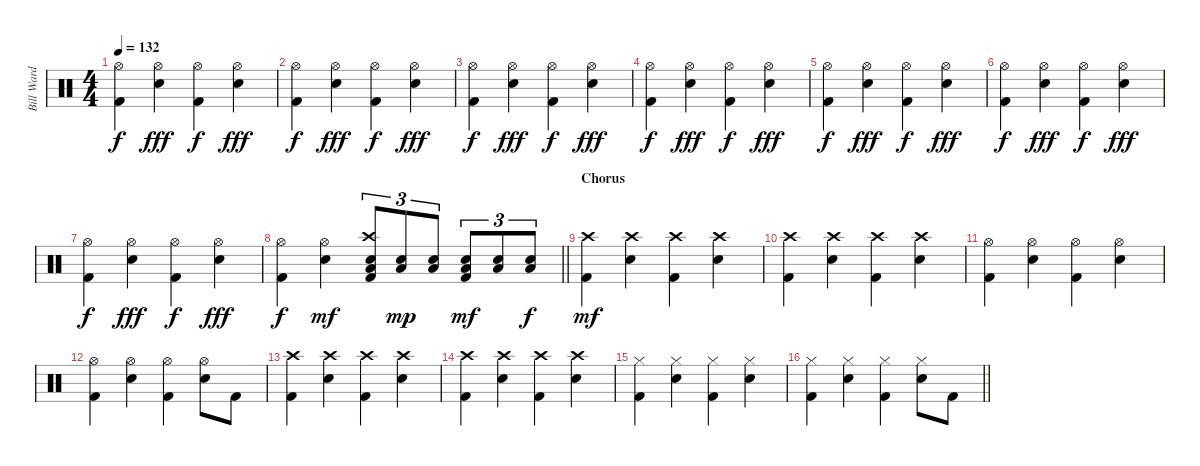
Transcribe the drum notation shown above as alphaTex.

\track ("Bill Ward" "Bill Ward") {instrument percussion}
\staff {score}
\articulation defaults
\ts (4 4)
\tempo 132
\clef neutral
\ks c
("Hi-Hat (open)" "Kick (hit) 2").4{dy f} ("Hi-Hat (open)" "Snare (hit) 2").4{dy fff} ("Hi-Hat (open)" "Kick (hit) 2").4{dy f} ("Hi-Hat (open)" "Snare (hit) 2").4{dy fff} |
("Hi-Hat (open)" "Kick (hit) 2").4{dy f} ("Hi-Hat (open)" "Snare (hit) 2").4{dy fff} ("Hi-Hat (open)" "Kick (hit) 2").4{dy f} ("Hi-Hat (open)" "Snare (hit) 2").4{dy fff} |
("Hi-Hat (open)" "Kick (hit) 2").4{dy f} ("Hi-Hat (open)" "Snare (hit) 2").4{dy fff} ("Hi-Hat (open)" "Kick (hit) 2").4{dy f} ("Hi-Hat (open)" "Snare (hit) 2").4{dy fff} |
("Hi-Hat (open)" "Kick (hit) 2").4{dy f} ("Hi-Hat (open)" "Snare (hit) 2").4{dy fff} ("Hi-Hat (open)" "Kick (hit) 2").4{dy f} ("Hi-Hat (open)" "Snare (hit) 2").4{dy fff} |
("Hi-Hat (open)" "Kick (hit) 2").4{dy f} ("Hi-Hat (open)" "Snare (hit) 2").4{dy fff} ("Hi-Hat (open)" "Kick (hit) 2").4{dy f} ("Hi-Hat (open)" "Snare (hit) 2").4{dy fff} |
("Hi-Hat (open)" "Kick (hit) 2").4{dy f} ("Hi-Hat (open)" "Snare (hit) 2").4{dy fff} ("Hi-Hat (open)" "Kick (hit) 2").4{dy f} ("Hi-Hat (open)" "Snare (hit) 2").4{dy fff} |
("Hi-Hat (open)" "Kick (hit) 2").4{dy f} ("Hi-Hat (open)" "Snare (hit) 2").4{dy fff} ("Hi-Hat (open)" "Kick (hit) 2").4{dy f} ("Hi-Hat (open)" "Snare (hit) 2").4{dy fff} |
\barLineRight lightlight
("Hi-Hat (open)" "Kick (hit) 2").4{dy f} ("Hi-Hat (open)" "Snare (hit) 2").4{dy mf} ("Crash high (hit)" "Snare (hit) 2" "Low Tom (hit)" "Kick (hit) 2").8{tu (3 2)} ("Snare (hit) 2" "Low Tom (hit)").8{tu (3 2) dy mp} ("Snare (hit) 2" "Low Tom (hit)").8{tu (3 2)} ("Snare (hit) 2" "Low Tom (hit)" "Kick (hit) 2").8{tu (3 2) dy mf} ("Snare (hit) 2" "Low Tom (hit)").8{tu (3 2)} ("Snare (hit) 2" "Low Tom (hit)").8{tu (3 2) dy f} |
\section ("" "Chorus")
("Crash high (hit)" "Kick (hit) 2").4{dy mf} ("Crash high (hit)" "Snare (hit) 2").4 ("Crash high (hit)" "Kick (hit) 2").4 ("Crash high (hit)" "Snare (hit) 2").4 |
("Crash high (hit)" "Kick (hit) 2").4 ("Crash high (hit)" "Snare (hit) 2").4 ("Crash high (hit)" "Kick (hit) 2").4 ("Crash high (hit)" "Snare (hit) 2").4 |
("Hi-Hat (open)" "Kick (hit) 2").4 ("Hi-Hat (open)" "Snare (hit) 2").4 ("Hi-Hat (open)" "Kick (hit) 2").4 ("Hi-Hat (open)" "Snare (hit) 2").4 |
("Hi-Hat (open)" "Kick (hit) 2").4 ("Hi-Hat (open)" "Snare (hit) 2").4 ("Hi-Hat (open)" "Kick (hit) 2").4 ("Hi-Hat (open)" "Snare (hit) 2").8 "Kick (hit) 2".8 |
("Crash high (hit)" "Kick (hit) 2").4 ("Crash high (hit)" "Snare (hit) 2").4 ("Crash high (hit)" "Kick (hit) 2").4 ("Crash high (hit)" "Snare (hit) 2").4 |
("Crash high (hit)" "Kick (hit) 2").4 ("Crash high (hit)" "Snare (hit) 2").4 ("Crash high (hit)" "Kick (hit) 2").4 ("Crash high (hit)" "Snare (hit) 2").4 |
("Hi-Hat (closed)" "Kick (hit) 2").4 ("Hi-Hat (closed)" "Snare (hit) 2").4 ("Hi-Hat (closed)" "Kick (hit) 2").4 ("Hi-Hat (closed)" "Snare (hit) 2").4 |
\barLineRight lightlight
("Hi-Hat (closed)" "Kick (hit) 2").4 ("Hi-Hat (closed)" "Snare (hit) 2").4 ("Hi-Hat (closed)" "Kick (hit) 2").4 ("Hi-Hat (closed)" "Snare (hit) 2").8 "Kick (hit) 2".8
